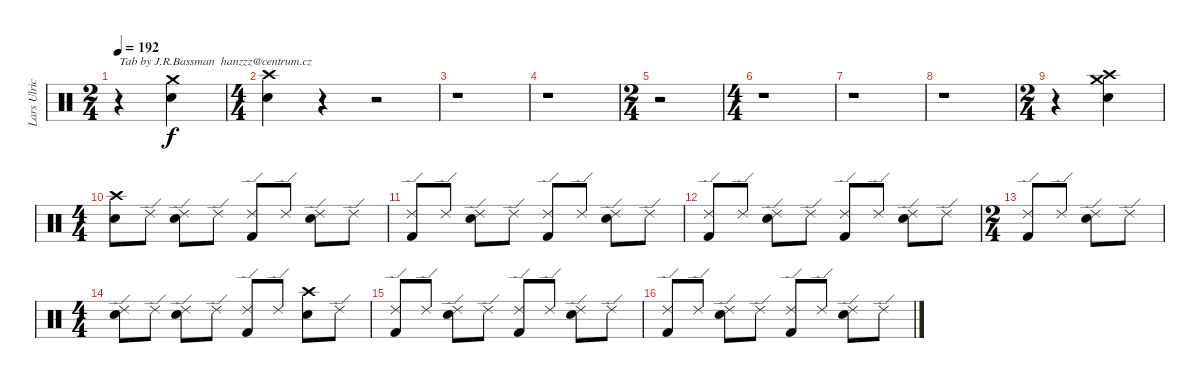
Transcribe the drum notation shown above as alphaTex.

\track ("Lars Ulrich" "Lars Ulric") {instrument percussion}
\staff {score}
\articulation defaults
\ts (2 4)
\tempo 192
\clef neutral
\ks c
r.4{txt "Tab by J.R.Bassman  hanzzz@centrum.cz" dy f} ("Crash medium (hit)" "Snare (hit) 2").4 |
\ts (4 4)
("Crash high (hit)" "Snare (hit) 2").4 r.4 r.2 |
r.1 |
r.1 |
\ts (2 4)
r.2 |
\ts (4 4)
r.1 |
r.1 |
r.1 |
\ts (2 4)
r.4 ("Crash high (hit)" "Crash medium (hit)" "Snare (hit) 2").4 |
\ts (4 4)
("Crash high (hit)" "Snare (hit) 2").8 "Ride (edge) 2".8 ("Ride (edge) 2" "Snare (hit) 2").8 "Ride (edge) 2".8 ("Ride (edge) 2" "Kick (hit) 2").8 "Ride (edge) 2".8 ("Ride (edge) 2" "Snare (hit) 2").8 "Ride (edge) 2".8 |
("Ride (edge) 2" "Kick (hit) 2").8 "Ride (edge) 2".8 ("Ride (edge) 2" "Snare (hit) 2").8 "Ride (edge) 2".8 ("Ride (edge) 2" "Kick (hit) 2").8 "Ride (edge) 2".8 ("Ride (edge) 2" "Snare (hit) 2").8 "Ride (edge) 2".8 |
("Ride (edge) 2" "Kick (hit) 2").8 "Ride (edge) 2".8 ("Ride (edge) 2" "Snare (hit) 2").8 "Ride (edge) 2".8 ("Ride (edge) 2" "Kick (hit) 2").8 "Ride (edge) 2".8 ("Ride (edge) 2" "Snare (hit) 2").8 "Ride (edge) 2".8 |
\ts (2 4)
("Ride (edge) 2" "Kick (hit) 2").8 "Ride (edge) 2".8 ("Ride (edge) 2" "Snare (hit) 2").8 "Ride (edge) 2".8 |
\ts (4 4)
("Ride (edge) 2" "Snare (hit) 2").8 "Ride (edge) 2".8 ("Ride (edge) 2" "Snare (hit) 2").8 "Ride (edge) 2".8 ("Ride (edge) 2" "Kick (hit) 2").8 "Ride (edge) 2".8 ("Crash high (hit)" "Snare (hit) 2").8 "Ride (edge) 2".8 |
("Ride (edge) 2" "Kick (hit) 2").8 "Ride (edge) 2".8 ("Ride (edge) 2" "Snare (hit) 2").8 "Ride (edge) 2".8 ("Ride (edge) 2" "Kick (hit) 2").8 "Ride (edge) 2".8 ("Ride (edge) 2" "Snare (hit) 2").8 "Ride (edge) 2".8 |
("Ride (edge) 2" "Kick (hit) 2").8 "Ride (edge) 2".8 ("Ride (edge) 2" "Snare (hit) 2").8 "Ride (edge) 2".8 ("Ride (edge) 2" "Kick (hit) 2").8 "Ride (edge) 2".8 ("Ride (edge) 2" "Snare (hit) 2").8 "Ride (edge) 2".8
